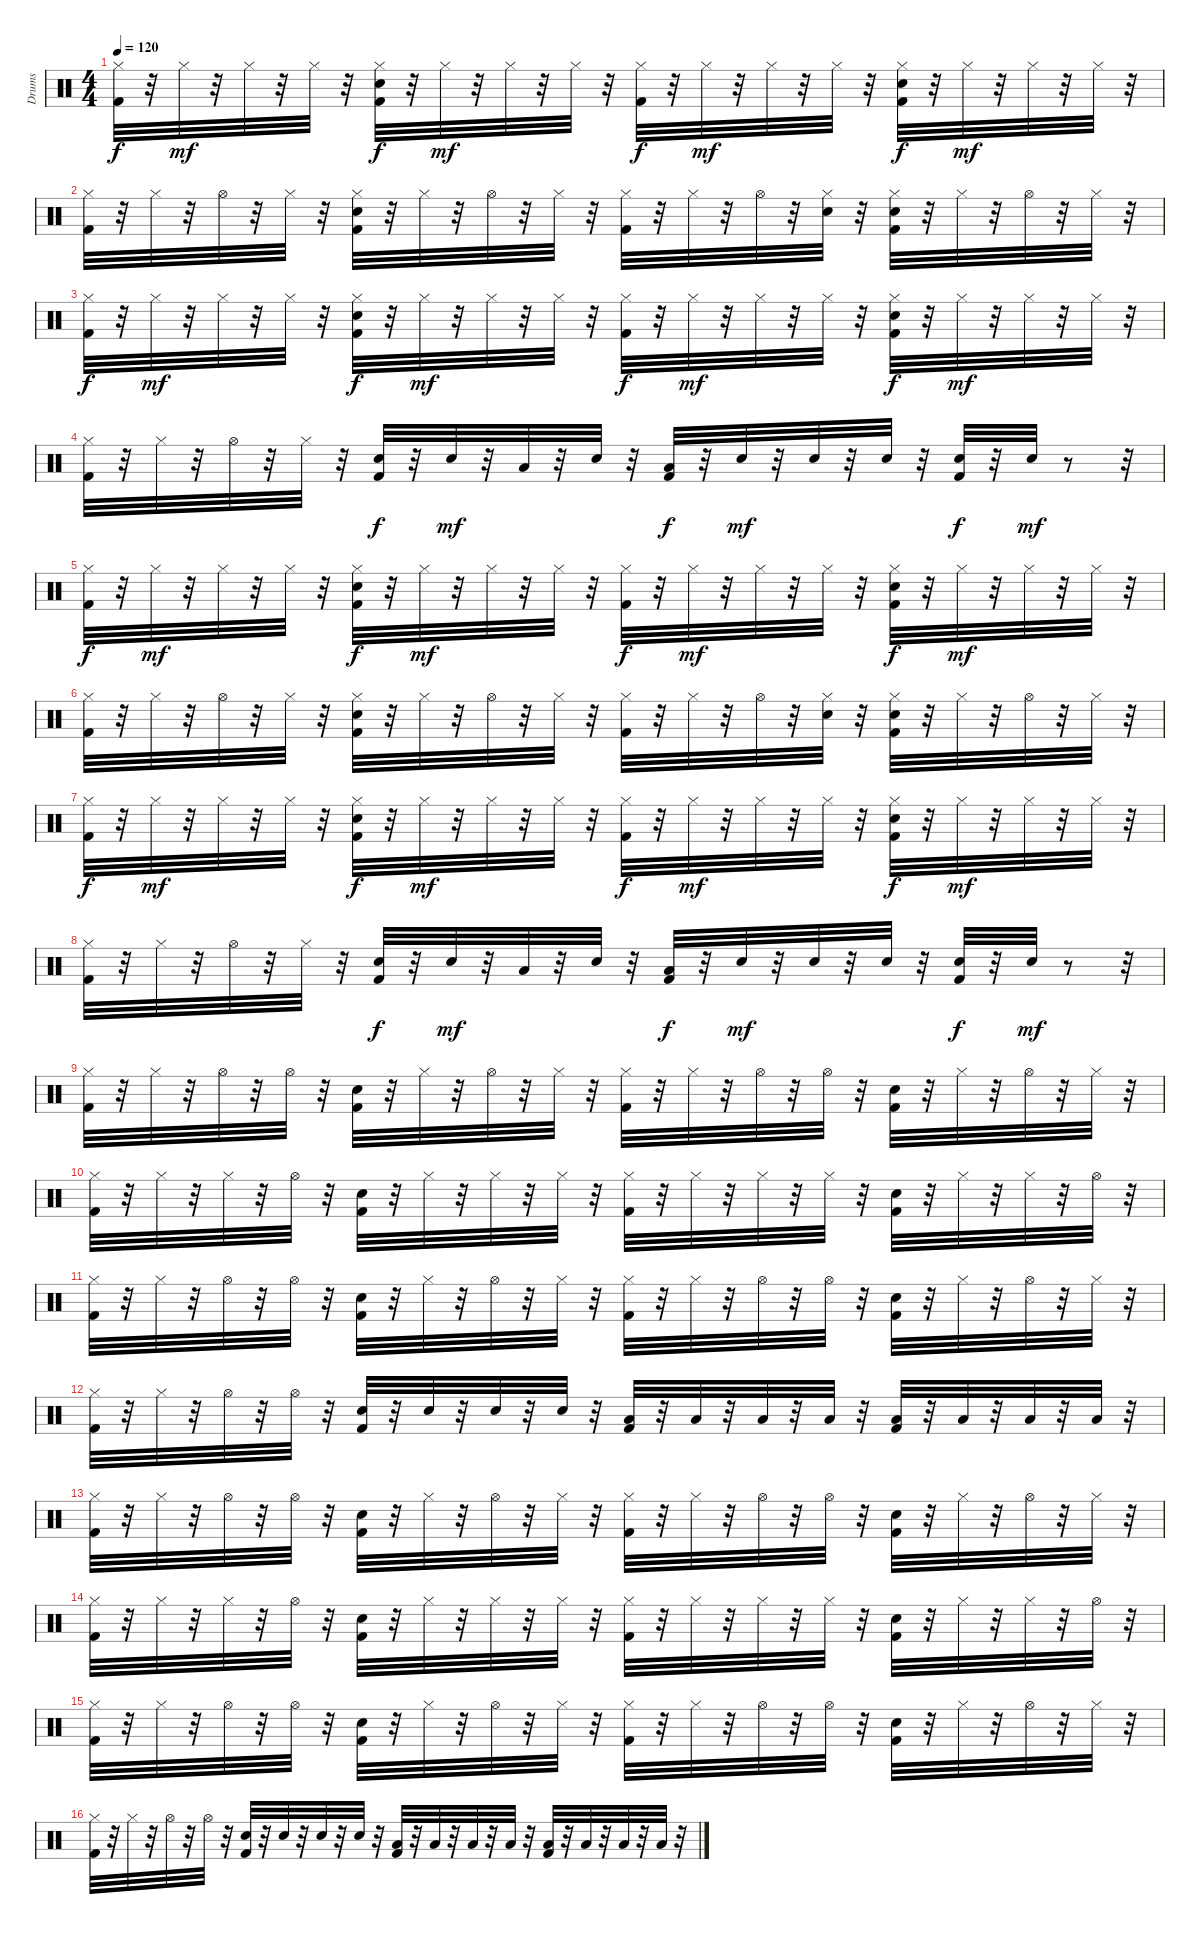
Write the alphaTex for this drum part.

\track ("Drums" "Drums") {instrument percussion}
\staff {score}
\articulation defaults
\ts (4 4)
\tempo 120
\clef neutral
\ks c
("Hi-Hat (closed)" "Kick (hit) 2").32{dy f} r.32 "Hi-Hat (closed)".32{dy mf} r.32 "Hi-Hat (closed)".32 r.32 "Hi-Hat (closed)".32 r.32 ("Hi-Hat (closed)" "Electric Snare (hit)" "Kick (hit) 2").32{dy f} r.32 "Hi-Hat (closed)".32{dy mf} r.32 "Hi-Hat (closed)".32 r.32 "Hi-Hat (closed)".32 r.32 ("Hi-Hat (closed)" "Kick (hit) 2").32{dy f} r.32 "Hi-Hat (closed)".32{dy mf} r.32 "Hi-Hat (closed)".32 r.32 "Hi-Hat (closed)".32 r.32 ("Hi-Hat (closed)" "Electric Snare (hit)" "Kick (hit) 2").32{dy f} r.32 "Hi-Hat (closed)".32{dy mf} r.32 "Hi-Hat (closed)".32 r.32 "Hi-Hat (closed)".32 r.32 |
("Hi-Hat (closed)" "Kick (hit) 2").32 r.32 "Hi-Hat (closed)".32 r.32 "Hi-Hat (open)".32 r.32 "Hi-Hat (closed)".32 r.32 ("Hi-Hat (closed)" "Electric Snare (hit)" "Kick (hit) 2").32 r.32 "Hi-Hat (closed)".32 r.32 "Hi-Hat (open)".32 r.32 "Hi-Hat (closed)".32 r.32 ("Hi-Hat (closed)" "Kick (hit) 2").32 r.32 "Hi-Hat (closed)".32 r.32 "Hi-Hat (open)".32 r.32 ("Hi-Hat (closed)" "Electric Snare (hit)").32 r.32 ("Hi-Hat (closed)" "Electric Snare (hit)" "Kick (hit) 2").32 r.32 "Hi-Hat (closed)".32 r.32 "Hi-Hat (open)".32 r.32 "Hi-Hat (closed)".32 r.32 |
("Hi-Hat (closed)" "Kick (hit) 2").32{dy f} r.32 "Hi-Hat (closed)".32{dy mf} r.32 "Hi-Hat (closed)".32 r.32 "Hi-Hat (closed)".32 r.32 ("Hi-Hat (closed)" "Electric Snare (hit)" "Kick (hit) 2").32{dy f} r.32 "Hi-Hat (closed)".32{dy mf} r.32 "Hi-Hat (closed)".32 r.32 "Hi-Hat (closed)".32 r.32 ("Hi-Hat (closed)" "Kick (hit) 2").32{dy f} r.32 "Hi-Hat (closed)".32{dy mf} r.32 "Hi-Hat (closed)".32 r.32 "Hi-Hat (closed)".32 r.32 ("Hi-Hat (closed)" "Electric Snare (hit)" "Kick (hit) 2").32{dy f} r.32 "Hi-Hat (closed)".32{dy mf} r.32 "Hi-Hat (closed)".32 r.32 "Hi-Hat (closed)".32 r.32 |
("Hi-Hat (closed)" "Kick (hit) 2").32 r.32 "Hi-Hat (closed)".32 r.32 "Hi-Hat (open)".32 r.32 "Hi-Hat (closed)".32 r.32 ("Electric Snare (hit)" "Kick (hit) 2").32{dy f} r.32 "Electric Snare (hit)".32{dy mf} r.32 "Low Tom (hit)".32 r.32 "Electric Snare (hit)".32 r.32 ("Low Floor Tom (hit)" "Kick (hit) 2").32{dy f} r.32 "Electric Snare (hit)".32{dy mf} r.32 "Electric Snare (hit)".32 r.32 "Electric Snare (hit)".32 r.32 ("Electric Snare (hit)" "Kick (hit) 2").32{dy f} r.32 "Electric Snare (hit)".32{dy mf} r.8 r.32 |
("Hi-Hat (closed)" "Kick (hit) 2").32{dy f} r.32 "Hi-Hat (closed)".32{dy mf} r.32 "Hi-Hat (closed)".32 r.32 "Hi-Hat (closed)".32 r.32 ("Hi-Hat (closed)" "Electric Snare (hit)" "Kick (hit) 2").32{dy f} r.32 "Hi-Hat (closed)".32{dy mf} r.32 "Hi-Hat (closed)".32 r.32 "Hi-Hat (closed)".32 r.32 ("Hi-Hat (closed)" "Kick (hit) 2").32{dy f} r.32 "Hi-Hat (closed)".32{dy mf} r.32 "Hi-Hat (closed)".32 r.32 "Hi-Hat (closed)".32 r.32 ("Hi-Hat (closed)" "Electric Snare (hit)" "Kick (hit) 2").32{dy f} r.32 "Hi-Hat (closed)".32{dy mf} r.32 "Hi-Hat (closed)".32 r.32 "Hi-Hat (closed)".32 r.32 |
("Hi-Hat (closed)" "Kick (hit) 2").32 r.32 "Hi-Hat (closed)".32 r.32 "Hi-Hat (open)".32 r.32 "Hi-Hat (closed)".32 r.32 ("Hi-Hat (closed)" "Electric Snare (hit)" "Kick (hit) 2").32 r.32 "Hi-Hat (closed)".32 r.32 "Hi-Hat (open)".32 r.32 "Hi-Hat (closed)".32 r.32 ("Hi-Hat (closed)" "Kick (hit) 2").32 r.32 "Hi-Hat (closed)".32 r.32 "Hi-Hat (open)".32 r.32 ("Hi-Hat (closed)" "Electric Snare (hit)").32 r.32 ("Hi-Hat (closed)" "Electric Snare (hit)" "Kick (hit) 2").32 r.32 "Hi-Hat (closed)".32 r.32 "Hi-Hat (open)".32 r.32 "Hi-Hat (closed)".32 r.32 |
("Hi-Hat (closed)" "Kick (hit) 2").32{dy f} r.32 "Hi-Hat (closed)".32{dy mf} r.32 "Hi-Hat (closed)".32 r.32 "Hi-Hat (closed)".32 r.32 ("Hi-Hat (closed)" "Electric Snare (hit)" "Kick (hit) 2").32{dy f} r.32 "Hi-Hat (closed)".32{dy mf} r.32 "Hi-Hat (closed)".32 r.32 "Hi-Hat (closed)".32 r.32 ("Hi-Hat (closed)" "Kick (hit) 2").32{dy f} r.32 "Hi-Hat (closed)".32{dy mf} r.32 "Hi-Hat (closed)".32 r.32 "Hi-Hat (closed)".32 r.32 ("Hi-Hat (closed)" "Electric Snare (hit)" "Kick (hit) 2").32{dy f} r.32 "Hi-Hat (closed)".32{dy mf} r.32 "Hi-Hat (closed)".32 r.32 "Hi-Hat (closed)".32 r.32 |
("Hi-Hat (closed)" "Kick (hit) 2").32 r.32 "Hi-Hat (closed)".32 r.32 "Hi-Hat (open)".32 r.32 "Hi-Hat (closed)".32 r.32 ("Electric Snare (hit)" "Kick (hit) 2").32{dy f} r.32 "Electric Snare (hit)".32{dy mf} r.32 "Low Tom (hit)".32 r.32 "Electric Snare (hit)".32 r.32 ("Low Floor Tom (hit)" "Kick (hit) 2").32{dy f} r.32 "Electric Snare (hit)".32{dy mf} r.32 "Electric Snare (hit)".32 r.32 "Electric Snare (hit)".32 r.32 ("Electric Snare (hit)" "Kick (hit) 2").32{dy f} r.32 "Electric Snare (hit)".32{dy mf} r.8 r.32 |
("Hi-Hat (closed)" "Kick (hit) 2").32 r.32 "Hi-Hat (closed)".32 r.32 "Hi-Hat (open)".32 r.32 "Hi-Hat (open)".32 r.32 ("Electric Snare (hit)" "Kick (hit) 2").32 r.32 "Hi-Hat (closed)".32 r.32 "Hi-Hat (open)".32 r.32 "Hi-Hat (closed)".32 r.32 ("Hi-Hat (closed)" "Kick (hit) 2").32 r.32 "Hi-Hat (closed)".32 r.32 "Hi-Hat (open)".32 r.32 "Hi-Hat (open)".32 r.32 ("Electric Snare (hit)" "Kick (hit) 2").32 r.32 "Hi-Hat (closed)".32 r.32 "Hi-Hat (open)".32 r.32 "Hi-Hat (closed)".32 r.32 |
("Hi-Hat (closed)" "Kick (hit) 2").32 r.32 "Hi-Hat (closed)".32 r.32 "Hi-Hat (closed)".32 r.32 "Hi-Hat (open)".32 r.32 ("Electric Snare (hit)" "Kick (hit) 2").32 r.32 "Hi-Hat (closed)".32 r.32 "Hi-Hat (closed)".32 r.32 "Hi-Hat (closed)".32 r.32 ("Hi-Hat (closed)" "Kick (hit) 2").32 r.32 "Hi-Hat (closed)".32 r.32 "Hi-Hat (closed)".32 r.32 "Hi-Hat (closed)".32 r.32 ("Electric Snare (hit)" "Kick (hit) 2").32 r.32 "Hi-Hat (closed)".32 r.32 "Hi-Hat (closed)".32 r.32 "Hi-Hat (open)".32 r.32 |
("Hi-Hat (closed)" "Kick (hit) 2").32 r.32 "Hi-Hat (closed)".32 r.32 "Hi-Hat (open)".32 r.32 "Hi-Hat (open)".32 r.32 ("Electric Snare (hit)" "Kick (hit) 2").32 r.32 "Hi-Hat (closed)".32 r.32 "Hi-Hat (open)".32 r.32 "Hi-Hat (closed)".32 r.32 ("Hi-Hat (closed)" "Kick (hit) 2").32 r.32 "Hi-Hat (closed)".32 r.32 "Hi-Hat (open)".32 r.32 "Hi-Hat (open)".32 r.32 ("Electric Snare (hit)" "Kick (hit) 2").32 r.32 "Hi-Hat (closed)".32 r.32 "Hi-Hat (open)".32 r.32 "Hi-Hat (closed)".32 r.32 |
("Hi-Hat (closed)" "Kick (hit) 2").32 r.32 "Hi-Hat (closed)".32 r.32 "Hi-Hat (open)".32 r.32 "Hi-Hat (open)".32 r.32 ("Electric Snare (hit)" "Kick (hit) 2").32 r.32 "Electric Snare (hit)".32 r.32 "Electric Snare (hit)".32 r.32 "Electric Snare (hit)".32 r.32 ("Low Tom (hit)" "Kick (hit) 2").32 r.32 "Low Tom (hit)".32 r.32 "Low Tom (hit)".32 r.32 "Low Tom (hit)".32 r.32 ("Low Floor Tom (hit)" "Kick (hit) 2").32 r.32 "Low Floor Tom (hit)".32 r.32 "Low Floor Tom (hit)".32 r.32 "Low Floor Tom (hit)".32 r.32 |
("Hi-Hat (closed)" "Kick (hit) 2").32 r.32 "Hi-Hat (closed)".32 r.32 "Hi-Hat (open)".32 r.32 "Hi-Hat (open)".32 r.32 ("Electric Snare (hit)" "Kick (hit) 2").32 r.32 "Hi-Hat (closed)".32 r.32 "Hi-Hat (open)".32 r.32 "Hi-Hat (closed)".32 r.32 ("Hi-Hat (closed)" "Kick (hit) 2").32 r.32 "Hi-Hat (closed)".32 r.32 "Hi-Hat (open)".32 r.32 "Hi-Hat (open)".32 r.32 ("Electric Snare (hit)" "Kick (hit) 2").32 r.32 "Hi-Hat (closed)".32 r.32 "Hi-Hat (open)".32 r.32 "Hi-Hat (closed)".32 r.32 |
("Hi-Hat (closed)" "Kick (hit) 2").32 r.32 "Hi-Hat (closed)".32 r.32 "Hi-Hat (closed)".32 r.32 "Hi-Hat (open)".32 r.32 ("Electric Snare (hit)" "Kick (hit) 2").32 r.32 "Hi-Hat (closed)".32 r.32 "Hi-Hat (closed)".32 r.32 "Hi-Hat (closed)".32 r.32 ("Hi-Hat (closed)" "Kick (hit) 2").32 r.32 "Hi-Hat (closed)".32 r.32 "Hi-Hat (closed)".32 r.32 "Hi-Hat (closed)".32 r.32 ("Electric Snare (hit)" "Kick (hit) 2").32 r.32 "Hi-Hat (closed)".32 r.32 "Hi-Hat (closed)".32 r.32 "Hi-Hat (open)".32 r.32 |
("Hi-Hat (closed)" "Kick (hit) 2").32 r.32 "Hi-Hat (closed)".32 r.32 "Hi-Hat (open)".32 r.32 "Hi-Hat (open)".32 r.32 ("Electric Snare (hit)" "Kick (hit) 2").32 r.32 "Hi-Hat (closed)".32 r.32 "Hi-Hat (open)".32 r.32 "Hi-Hat (closed)".32 r.32 ("Hi-Hat (closed)" "Kick (hit) 2").32 r.32 "Hi-Hat (closed)".32 r.32 "Hi-Hat (open)".32 r.32 "Hi-Hat (open)".32 r.32 ("Electric Snare (hit)" "Kick (hit) 2").32 r.32 "Hi-Hat (closed)".32 r.32 "Hi-Hat (open)".32 r.32 "Hi-Hat (closed)".32 r.32 |
("Hi-Hat (closed)" "Kick (hit) 2").32 r.32 "Hi-Hat (closed)".32 r.32 "Hi-Hat (open)".32 r.32 "Hi-Hat (open)".32 r.32 ("Electric Snare (hit)" "Kick (hit) 2").32 r.32 "Electric Snare (hit)".32 r.32 "Electric Snare (hit)".32 r.32 "Electric Snare (hit)".32 r.32 ("Low Tom (hit)" "Kick (hit) 2").32 r.32 "Low Tom (hit)".32 r.32 "Low Tom (hit)".32 r.32 "Low Tom (hit)".32 r.32 ("Low Floor Tom (hit)" "Kick (hit) 2").32 r.32 "Low Floor Tom (hit)".32 r.32 "Low Floor Tom (hit)".32 r.32 "Low Floor Tom (hit)".32 r.32
